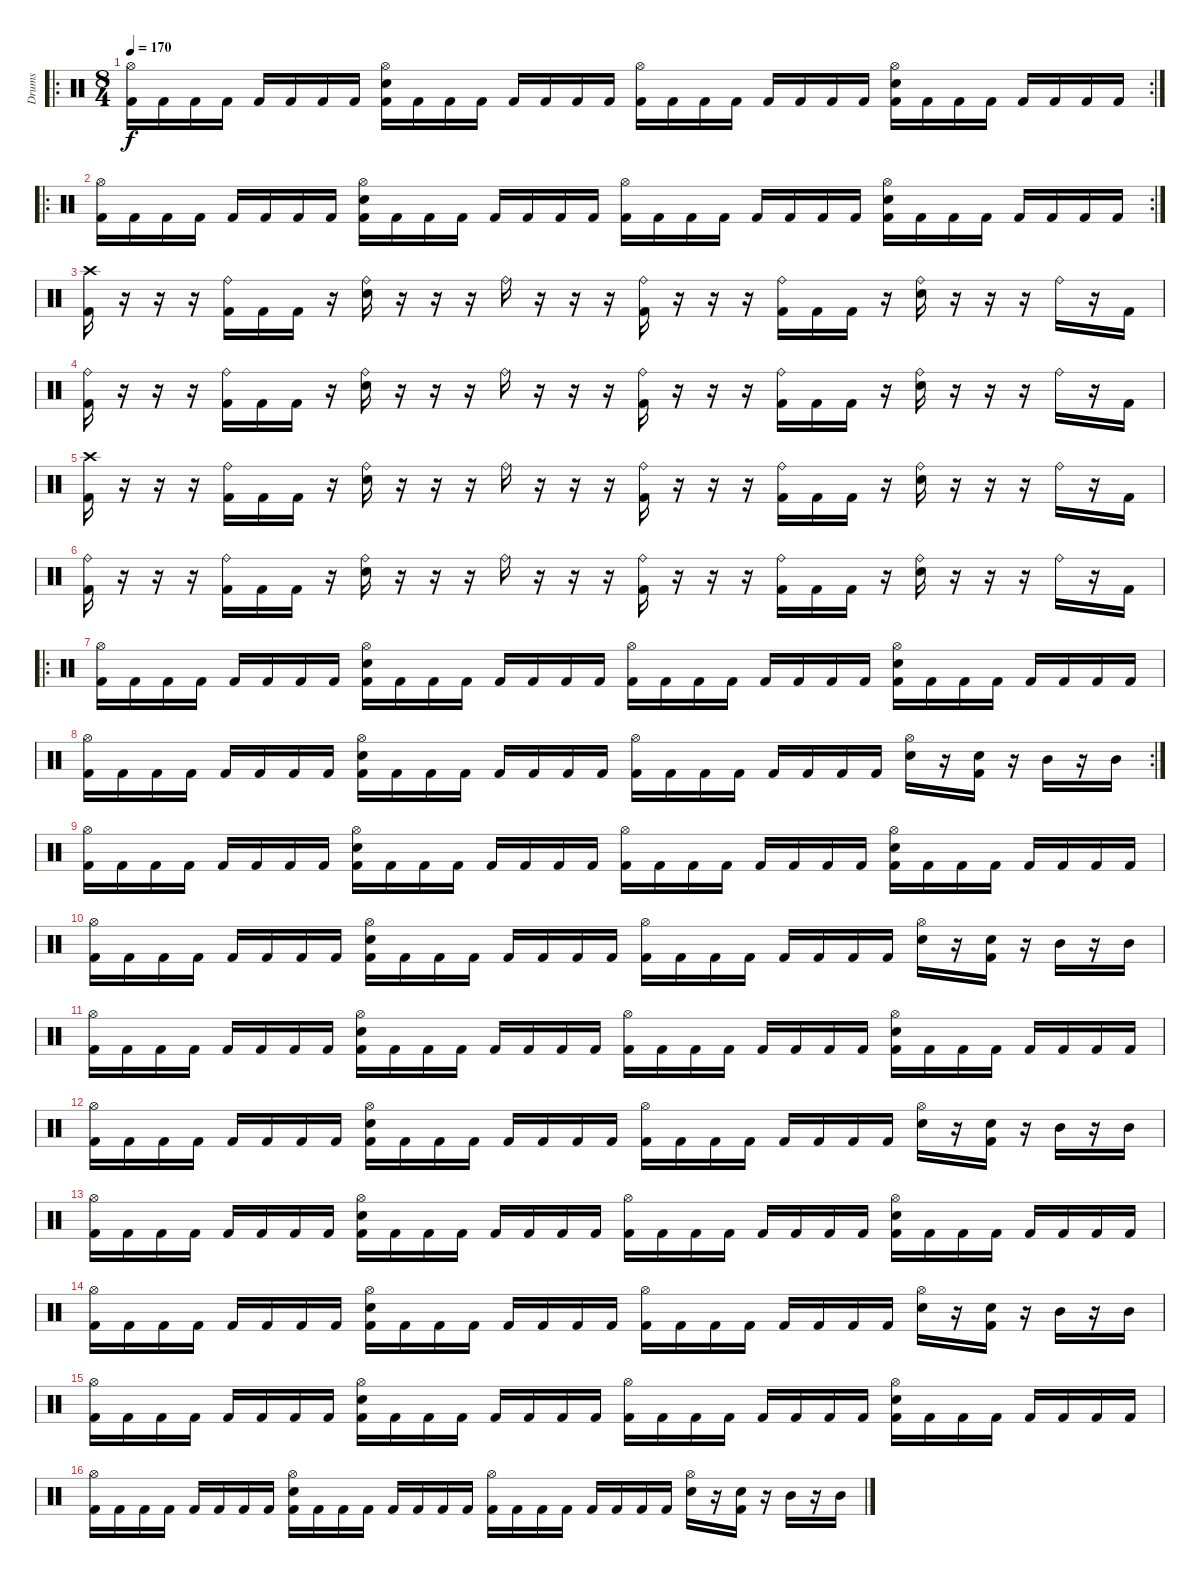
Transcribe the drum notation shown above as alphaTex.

\track ("Drums" "Drums") {instrument percussion}
\staff {score}
\articulation defaults
\ro
\rc 2
\ts (8 4)
\tempo 170
\clef neutral
\ks c
("Hi-Hat (open)" "Kick (hit) 2").16{dy f} "Kick (hit) 2".16 "Kick (hit) 2".16 "Kick (hit) 2".16 "Kick (hit) 2".16 "Kick (hit) 2".16 "Kick (hit) 2".16 "Kick (hit) 2".16 ("Hi-Hat (open)" "Snare (hit) 2" "Kick (hit) 2").16 "Kick (hit) 2".16 "Kick (hit) 2".16 "Kick (hit) 2".16 "Kick (hit) 2".16 "Kick (hit) 2".16 "Kick (hit) 2".16 "Kick (hit) 2".16 ("Hi-Hat (open)" "Kick (hit) 2").16 "Kick (hit) 2".16 "Kick (hit) 2".16 "Kick (hit) 2".16 "Kick (hit) 2".16 "Kick (hit) 2".16 "Kick (hit) 2".16 "Kick (hit) 2".16 ("Hi-Hat (open)" "Snare (hit) 2" "Kick (hit) 2").16 "Kick (hit) 2".16 "Kick (hit) 2".16 "Kick (hit) 2".16 "Kick (hit) 2".16 "Kick (hit) 2".16 "Kick (hit) 2".16 "Kick (hit) 2".16 |
\ro
\rc 2
("Hi-Hat (open)" "Kick (hit) 2").16 "Kick (hit) 2".16 "Kick (hit) 2".16 "Kick (hit) 2".16 "Kick (hit) 2".16 "Kick (hit) 2".16 "Kick (hit) 2".16 "Kick (hit) 2".16 ("Hi-Hat (open)" "Snare (hit) 2" "Kick (hit) 2").16 "Kick (hit) 2".16 "Kick (hit) 2".16 "Kick (hit) 2".16 "Kick (hit) 2".16 "Kick (hit) 2".16 "Kick (hit) 2".16 "Kick (hit) 2".16 ("Hi-Hat (open)" "Kick (hit) 2").16 "Kick (hit) 2".16 "Kick (hit) 2".16 "Kick (hit) 2".16 "Kick (hit) 2".16 "Kick (hit) 2".16 "Kick (hit) 2".16 "Kick (hit) 2".16 ("Hi-Hat (open)" "Snare (hit) 2" "Kick (hit) 2").16 "Kick (hit) 2".16 "Kick (hit) 2".16 "Kick (hit) 2".16 "Kick (hit) 2".16 "Kick (hit) 2".16 "Kick (hit) 2".16 "Kick (hit) 2".16 |
("Crash high (hit)" "Kick (hit) 2").16 r.16 r.16 r.16 ("Ride (bell)" "Kick (hit) 2").16 "Kick (hit) 2".16 "Kick (hit) 2".16 r.16 ("Ride (bell)" "Snare (hit) 2").16 r.16 r.16 r.16 "Ride (bell)".16 r.16 r.16 r.16 ("Ride (bell)" "Kick (hit) 2").16 r.16 r.16 r.16 ("Ride (bell)" "Kick (hit) 2").16 "Kick (hit) 2".16 "Kick (hit) 2".16 r.16 ("Ride (bell)" "Snare (hit) 2").16 r.16 r.16 r.16 "Ride (bell)".16 r.16 "Kick (hit) 2".16 |
("Ride (bell)" "Kick (hit) 2").16 r.16 r.16 r.16 ("Ride (bell)" "Kick (hit) 2").16 "Kick (hit) 2".16 "Kick (hit) 2".16 r.16 ("Ride (bell)" "Snare (hit) 2").16 r.16 r.16 r.16 "Ride (bell)".16 r.16 r.16 r.16 ("Ride (bell)" "Kick (hit) 2").16 r.16 r.16 r.16 ("Ride (bell)" "Kick (hit) 2").16 "Kick (hit) 2".16 "Kick (hit) 2".16 r.16 ("Ride (bell)" "Snare (hit) 2").16 r.16 r.16 r.16 "Ride (bell)".16 r.16 "Kick (hit) 2".16 |
("Crash high (hit)" "Kick (hit) 2").16 r.16 r.16 r.16 ("Ride (bell)" "Kick (hit) 2").16 "Kick (hit) 2".16 "Kick (hit) 2".16 r.16 ("Ride (bell)" "Snare (hit) 2").16 r.16 r.16 r.16 "Ride (bell)".16 r.16 r.16 r.16 ("Ride (bell)" "Kick (hit) 2").16 r.16 r.16 r.16 ("Ride (bell)" "Kick (hit) 2").16 "Kick (hit) 2".16 "Kick (hit) 2".16 r.16 ("Ride (bell)" "Snare (hit) 2").16 r.16 r.16 r.16 "Ride (bell)".16 r.16 "Kick (hit) 2".16 |
("Ride (bell)" "Kick (hit) 2").16 r.16 r.16 r.16 ("Ride (bell)" "Kick (hit) 2").16 "Kick (hit) 2".16 "Kick (hit) 2".16 r.16 ("Ride (bell)" "Snare (hit) 2").16 r.16 r.16 r.16 "Ride (bell)".16 r.16 r.16 r.16 ("Ride (bell)" "Kick (hit) 2").16 r.16 r.16 r.16 ("Ride (bell)" "Kick (hit) 2").16 "Kick (hit) 2".16 "Kick (hit) 2".16 r.16 ("Ride (bell)" "Snare (hit) 2").16 r.16 r.16 r.16 "Ride (bell)".16 r.16 "Kick (hit) 2".16 |
\ro
("Hi-Hat (open)" "Kick (hit) 2").16 "Kick (hit) 2".16 "Kick (hit) 2".16 "Kick (hit) 2".16 "Kick (hit) 2".16 "Kick (hit) 2".16 "Kick (hit) 2".16 "Kick (hit) 2".16 ("Hi-Hat (open)" "Snare (hit) 2" "Kick (hit) 2").16 "Kick (hit) 2".16 "Kick (hit) 2".16 "Kick (hit) 2".16 "Kick (hit) 2".16 "Kick (hit) 2".16 "Kick (hit) 2".16 "Kick (hit) 2".16 ("Hi-Hat (open)" "Kick (hit) 2").16 "Kick (hit) 2".16 "Kick (hit) 2".16 "Kick (hit) 2".16 "Kick (hit) 2".16 "Kick (hit) 2".16 "Kick (hit) 2".16 "Kick (hit) 2".16 ("Hi-Hat (open)" "Snare (hit) 2" "Kick (hit) 2").16 "Kick (hit) 2".16 "Kick (hit) 2".16 "Kick (hit) 2".16 "Kick (hit) 2".16 "Kick (hit) 2".16 "Kick (hit) 2".16 "Kick (hit) 2".16 |
\rc 2
("Hi-Hat (open)" "Kick (hit) 2").16 "Kick (hit) 2".16 "Kick (hit) 2".16 "Kick (hit) 2".16 "Kick (hit) 2".16 "Kick (hit) 2".16 "Kick (hit) 2".16 "Kick (hit) 2".16 ("Hi-Hat (open)" "Snare (hit) 2" "Kick (hit) 2").16 "Kick (hit) 2".16 "Kick (hit) 2".16 "Kick (hit) 2".16 "Kick (hit) 2".16 "Kick (hit) 2".16 "Kick (hit) 2".16 "Kick (hit) 2".16 ("Hi-Hat (open)" "Kick (hit) 2").16 "Kick (hit) 2".16 "Kick (hit) 2".16 "Kick (hit) 2".16 "Kick (hit) 2".16 "Kick (hit) 2".16 "Kick (hit) 2".16 "Kick (hit) 2".16 ("Hi-Hat (open)" "Snare (hit) 2").16 r.16 ("Snare (hit) 2" "Kick (hit) 2").16 r.16 "Mid Tom (hit)".16 r.16 "Mid Tom (hit)".16 |
("Hi-Hat (open)" "Kick (hit) 2").16 "Kick (hit) 2".16 "Kick (hit) 2".16 "Kick (hit) 2".16 "Kick (hit) 2".16 "Kick (hit) 2".16 "Kick (hit) 2".16 "Kick (hit) 2".16 ("Hi-Hat (open)" "Snare (hit) 2" "Kick (hit) 2").16 "Kick (hit) 2".16 "Kick (hit) 2".16 "Kick (hit) 2".16 "Kick (hit) 2".16 "Kick (hit) 2".16 "Kick (hit) 2".16 "Kick (hit) 2".16 ("Hi-Hat (open)" "Kick (hit) 2").16 "Kick (hit) 2".16 "Kick (hit) 2".16 "Kick (hit) 2".16 "Kick (hit) 2".16 "Kick (hit) 2".16 "Kick (hit) 2".16 "Kick (hit) 2".16 ("Hi-Hat (open)" "Snare (hit) 2" "Kick (hit) 2").16 "Kick (hit) 2".16 "Kick (hit) 2".16 "Kick (hit) 2".16 "Kick (hit) 2".16 "Kick (hit) 2".16 "Kick (hit) 2".16 "Kick (hit) 2".16 |
("Hi-Hat (open)" "Kick (hit) 2").16 "Kick (hit) 2".16 "Kick (hit) 2".16 "Kick (hit) 2".16 "Kick (hit) 2".16 "Kick (hit) 2".16 "Kick (hit) 2".16 "Kick (hit) 2".16 ("Hi-Hat (open)" "Snare (hit) 2" "Kick (hit) 2").16 "Kick (hit) 2".16 "Kick (hit) 2".16 "Kick (hit) 2".16 "Kick (hit) 2".16 "Kick (hit) 2".16 "Kick (hit) 2".16 "Kick (hit) 2".16 ("Hi-Hat (open)" "Kick (hit) 2").16 "Kick (hit) 2".16 "Kick (hit) 2".16 "Kick (hit) 2".16 "Kick (hit) 2".16 "Kick (hit) 2".16 "Kick (hit) 2".16 "Kick (hit) 2".16 ("Hi-Hat (open)" "Snare (hit) 2").16 r.16 ("Snare (hit) 2" "Kick (hit) 2").16 r.16 "Mid Tom (hit)".16 r.16 "Mid Tom (hit)".16 |
("Hi-Hat (open)" "Kick (hit) 2").16 "Kick (hit) 2".16 "Kick (hit) 2".16 "Kick (hit) 2".16 "Kick (hit) 2".16 "Kick (hit) 2".16 "Kick (hit) 2".16 "Kick (hit) 2".16 ("Hi-Hat (open)" "Snare (hit) 2" "Kick (hit) 2").16 "Kick (hit) 2".16 "Kick (hit) 2".16 "Kick (hit) 2".16 "Kick (hit) 2".16 "Kick (hit) 2".16 "Kick (hit) 2".16 "Kick (hit) 2".16 ("Hi-Hat (open)" "Kick (hit) 2").16 "Kick (hit) 2".16 "Kick (hit) 2".16 "Kick (hit) 2".16 "Kick (hit) 2".16 "Kick (hit) 2".16 "Kick (hit) 2".16 "Kick (hit) 2".16 ("Hi-Hat (open)" "Snare (hit) 2" "Kick (hit) 2").16 "Kick (hit) 2".16 "Kick (hit) 2".16 "Kick (hit) 2".16 "Kick (hit) 2".16 "Kick (hit) 2".16 "Kick (hit) 2".16 "Kick (hit) 2".16 |
("Hi-Hat (open)" "Kick (hit) 2").16 "Kick (hit) 2".16 "Kick (hit) 2".16 "Kick (hit) 2".16 "Kick (hit) 2".16 "Kick (hit) 2".16 "Kick (hit) 2".16 "Kick (hit) 2".16 ("Hi-Hat (open)" "Snare (hit) 2" "Kick (hit) 2").16 "Kick (hit) 2".16 "Kick (hit) 2".16 "Kick (hit) 2".16 "Kick (hit) 2".16 "Kick (hit) 2".16 "Kick (hit) 2".16 "Kick (hit) 2".16 ("Hi-Hat (open)" "Kick (hit) 2").16 "Kick (hit) 2".16 "Kick (hit) 2".16 "Kick (hit) 2".16 "Kick (hit) 2".16 "Kick (hit) 2".16 "Kick (hit) 2".16 "Kick (hit) 2".16 ("Hi-Hat (open)" "Snare (hit) 2").16 r.16 ("Snare (hit) 2" "Kick (hit) 2").16 r.16 "Mid Tom (hit)".16 r.16 "Mid Tom (hit)".16 |
("Hi-Hat (open)" "Kick (hit) 2").16{volume 7} "Kick (hit) 2".16 "Kick (hit) 2".16 "Kick (hit) 2".16 "Kick (hit) 2".16 "Kick (hit) 2".16 "Kick (hit) 2".16 "Kick (hit) 2".16 ("Hi-Hat (open)" "Snare (hit) 2" "Kick (hit) 2").16 "Kick (hit) 2".16 "Kick (hit) 2".16 "Kick (hit) 2".16 "Kick (hit) 2".16 "Kick (hit) 2".16 "Kick (hit) 2".16 "Kick (hit) 2".16 ("Hi-Hat (open)" "Kick (hit) 2").16 "Kick (hit) 2".16 "Kick (hit) 2".16 "Kick (hit) 2".16 "Kick (hit) 2".16 "Kick (hit) 2".16 "Kick (hit) 2".16 "Kick (hit) 2".16 ("Hi-Hat (open)" "Snare (hit) 2" "Kick (hit) 2").16 "Kick (hit) 2".16 "Kick (hit) 2".16 "Kick (hit) 2".16 "Kick (hit) 2".16 "Kick (hit) 2".16 "Kick (hit) 2".16 "Kick (hit) 2".16 |
("Hi-Hat (open)" "Kick (hit) 2").16 "Kick (hit) 2".16 "Kick (hit) 2".16 "Kick (hit) 2".16 "Kick (hit) 2".16 "Kick (hit) 2".16 "Kick (hit) 2".16 "Kick (hit) 2".16 ("Hi-Hat (open)" "Snare (hit) 2" "Kick (hit) 2").16 "Kick (hit) 2".16 "Kick (hit) 2".16 "Kick (hit) 2".16 "Kick (hit) 2".16 "Kick (hit) 2".16 "Kick (hit) 2".16 "Kick (hit) 2".16 ("Hi-Hat (open)" "Kick (hit) 2").16 "Kick (hit) 2".16 "Kick (hit) 2".16 "Kick (hit) 2".16 "Kick (hit) 2".16 "Kick (hit) 2".16 "Kick (hit) 2".16 "Kick (hit) 2".16 ("Hi-Hat (open)" "Snare (hit) 2").16 r.16 ("Snare (hit) 2" "Kick (hit) 2").16 r.16 "Mid Tom (hit)".16 r.16 "Mid Tom (hit)".16 |
("Hi-Hat (open)" "Kick (hit) 2").16 "Kick (hit) 2".16 "Kick (hit) 2".16 "Kick (hit) 2".16 "Kick (hit) 2".16 "Kick (hit) 2".16 "Kick (hit) 2".16 "Kick (hit) 2".16 ("Hi-Hat (open)" "Snare (hit) 2" "Kick (hit) 2").16 "Kick (hit) 2".16 "Kick (hit) 2".16 "Kick (hit) 2".16 "Kick (hit) 2".16 "Kick (hit) 2".16 "Kick (hit) 2".16 "Kick (hit) 2".16 ("Hi-Hat (open)" "Kick (hit) 2").16 "Kick (hit) 2".16 "Kick (hit) 2".16 "Kick (hit) 2".16 "Kick (hit) 2".16 "Kick (hit) 2".16 "Kick (hit) 2".16 "Kick (hit) 2".16 ("Hi-Hat (open)" "Snare (hit) 2" "Kick (hit) 2").16 "Kick (hit) 2".16 "Kick (hit) 2".16 "Kick (hit) 2".16 "Kick (hit) 2".16 "Kick (hit) 2".16 "Kick (hit) 2".16 "Kick (hit) 2".16 |
("Hi-Hat (open)" "Kick (hit) 2").16 "Kick (hit) 2".16 "Kick (hit) 2".16 "Kick (hit) 2".16 "Kick (hit) 2".16 "Kick (hit) 2".16 "Kick (hit) 2".16 "Kick (hit) 2".16 ("Hi-Hat (open)" "Snare (hit) 2" "Kick (hit) 2").16 "Kick (hit) 2".16 "Kick (hit) 2".16 "Kick (hit) 2".16 "Kick (hit) 2".16 "Kick (hit) 2".16 "Kick (hit) 2".16 "Kick (hit) 2".16 ("Hi-Hat (open)" "Kick (hit) 2").16 "Kick (hit) 2".16 "Kick (hit) 2".16 "Kick (hit) 2".16 "Kick (hit) 2".16 "Kick (hit) 2".16 "Kick (hit) 2".16 "Kick (hit) 2".16 ("Hi-Hat (open)" "Snare (hit) 2").16 r.16 ("Snare (hit) 2" "Kick (hit) 2").16 r.16 "Mid Tom (hit)".16 r.16 "Mid Tom (hit)".16
